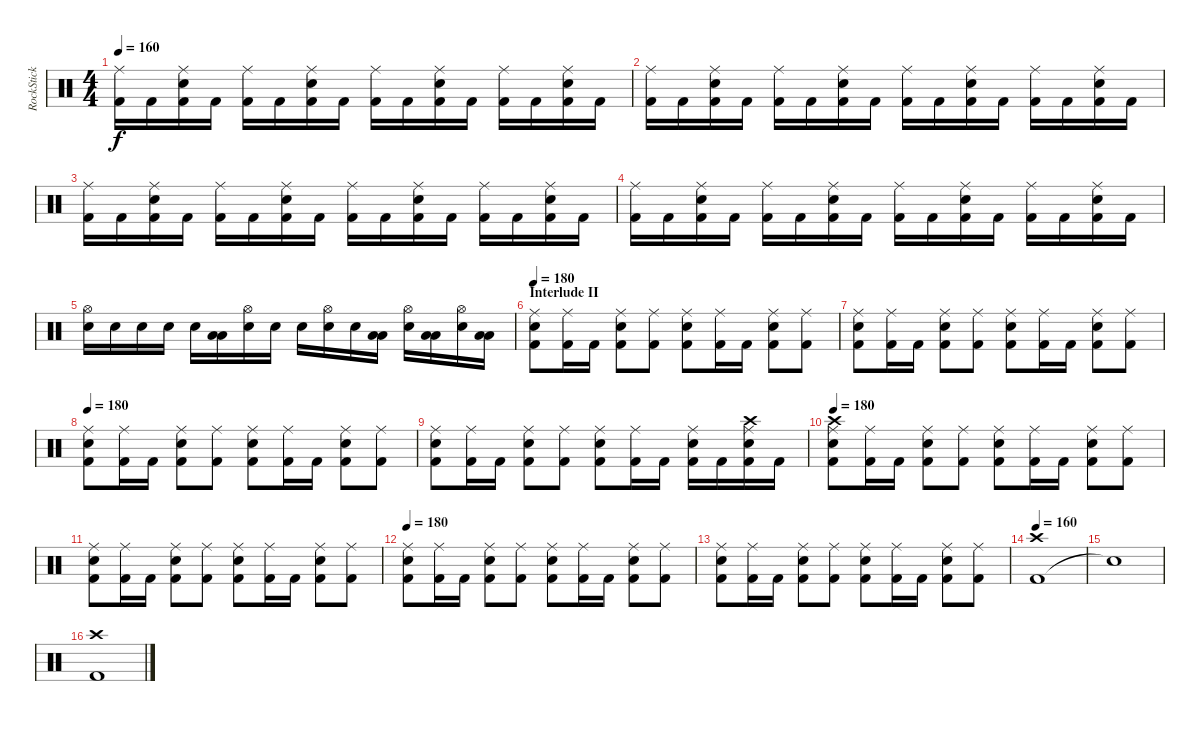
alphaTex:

\track ("RockStick" "RockStick") {instrument percussion}
\staff {score}
\articulation defaults
\ts (4 4)
\tempo 160
\clef neutral
\ks c
("Kick (hit) 2" "Ride (middle)").16{dy f} "Kick (hit) 2".16 ("Electric Snare (hit)" "Kick (hit) 2" "Ride (middle)").16 "Kick (hit) 2".16 ("Kick (hit) 2" "Ride (middle)").16 "Kick (hit) 2".16 ("Electric Snare (hit)" "Kick (hit) 2" "Ride (middle)").16 "Kick (hit) 2".16 ("Kick (hit) 2" "Ride (middle)").16 "Kick (hit) 2".16 ("Electric Snare (hit)" "Kick (hit) 2" "Ride (middle)").16 "Kick (hit) 2".16 ("Kick (hit) 2" "Ride (middle)").16 "Kick (hit) 2".16 ("Electric Snare (hit)" "Kick (hit) 2" "Ride (middle)").16 "Kick (hit) 2".16 |
("Kick (hit) 2" "Ride (middle)").16 "Kick (hit) 2".16 ("Electric Snare (hit)" "Kick (hit) 2" "Ride (middle)").16 "Kick (hit) 2".16 ("Kick (hit) 2" "Ride (middle)").16 "Kick (hit) 2".16 ("Electric Snare (hit)" "Kick (hit) 2" "Ride (middle)").16 "Kick (hit) 2".16 ("Kick (hit) 2" "Ride (middle)").16 "Kick (hit) 2".16 ("Electric Snare (hit)" "Kick (hit) 2" "Ride (middle)").16 "Kick (hit) 2".16 ("Kick (hit) 2" "Ride (middle)").16 "Kick (hit) 2".16 ("Electric Snare (hit)" "Kick (hit) 2" "Ride (middle)").16 "Kick (hit) 2".16 |
("Kick (hit) 2" "Ride (middle)").16 "Kick (hit) 2".16 ("Electric Snare (hit)" "Kick (hit) 2" "Ride (middle)").16 "Kick (hit) 2".16 ("Kick (hit) 2" "Ride (middle)").16 "Kick (hit) 2".16 ("Electric Snare (hit)" "Kick (hit) 2" "Ride (middle)").16 "Kick (hit) 2".16 ("Kick (hit) 2" "Ride (middle)").16 "Kick (hit) 2".16 ("Electric Snare (hit)" "Kick (hit) 2" "Ride (middle)").16 "Kick (hit) 2".16 ("Kick (hit) 2" "Ride (middle)").16 "Kick (hit) 2".16 ("Electric Snare (hit)" "Kick (hit) 2" "Ride (middle)").16 "Kick (hit) 2".16 |
("Kick (hit) 2" "Ride (middle)").16 "Kick (hit) 2".16 ("Electric Snare (hit)" "Kick (hit) 2" "Ride (middle)").16 "Kick (hit) 2".16 ("Kick (hit) 2" "Ride (middle)").16 "Kick (hit) 2".16 ("Electric Snare (hit)" "Kick (hit) 2" "Ride (middle)").16 "Kick (hit) 2".16 ("Kick (hit) 2" "Ride (middle)").16 "Kick (hit) 2".16 ("Electric Snare (hit)" "Kick (hit) 2" "Ride (middle)").16 "Kick (hit) 2".16 ("Kick (hit) 2" "Ride (middle)").16 "Kick (hit) 2".16 ("Electric Snare (hit)" "Kick (hit) 2" "Ride (middle)").16 "Kick (hit) 2".16 |
("Electric Snare (hit)" "Hi-Hat (open)").16 "Electric Snare (hit)".16 "Electric Snare (hit)".16 "Electric Snare (hit)".16 "Electric Snare (hit)".16 ("Low Tom (hit)" "Low Tom (hit)").16 ("Electric Snare (hit)" "Hi-Hat (open)").16 "Electric Snare (hit)".16 "Electric Snare (hit)".16 ("Electric Snare (hit)" "Hi-Hat (open)").16 "Electric Snare (hit)".16 ("Low Tom (hit)" "Low Tom (hit)").16 ("Electric Snare (hit)" "Hi-Hat (open)").16 ("Low Tom (hit)" "Low Tom (hit)").16 ("Electric Snare (hit)" "Hi-Hat (open)").16 ("Low Tom (hit)" "Low Tom (hit)").16 |
\section ("" "Interlude II")
\tempo 180
("Kick (hit) 2" "Electric Snare (hit)" "Ride (middle)").8 ("Kick (hit) 2" "Ride (middle)").16 "Kick (hit) 2".16 ("Kick (hit) 2" "Electric Snare (hit)" "Ride (middle)").8 ("Kick (hit) 2" "Ride (middle)").8 ("Kick (hit) 2" "Electric Snare (hit)" "Ride (middle)").8 ("Kick (hit) 2" "Ride (middle)").16 "Kick (hit) 2".16 ("Kick (hit) 2" "Electric Snare (hit)" "Ride (middle)").8 ("Kick (hit) 2" "Ride (middle)").8 |
("Kick (hit) 2" "Electric Snare (hit)" "Ride (middle)").8 ("Kick (hit) 2" "Ride (middle)").16 "Kick (hit) 2".16 ("Kick (hit) 2" "Electric Snare (hit)" "Ride (middle)").8 ("Kick (hit) 2" "Ride (middle)").8 ("Kick (hit) 2" "Electric Snare (hit)" "Ride (middle)").8 ("Kick (hit) 2" "Ride (middle)").16 "Kick (hit) 2".16 ("Kick (hit) 2" "Electric Snare (hit)" "Ride (middle)").8 ("Kick (hit) 2" "Ride (middle)").8 |
\tempo 180
("Kick (hit) 2" "Electric Snare (hit)" "Ride (middle)").8 ("Kick (hit) 2" "Ride (middle)").16 "Kick (hit) 2".16 ("Kick (hit) 2" "Electric Snare (hit)" "Ride (middle)").8 ("Kick (hit) 2" "Ride (middle)").8 ("Kick (hit) 2" "Electric Snare (hit)" "Ride (middle)").8 ("Kick (hit) 2" "Ride (middle)").16 "Kick (hit) 2".16 ("Kick (hit) 2" "Electric Snare (hit)" "Ride (middle)").8 ("Kick (hit) 2" "Ride (middle)").8 |
("Kick (hit) 2" "Electric Snare (hit)" "Ride (middle)").8 ("Kick (hit) 2" "Ride (middle)").16 "Kick (hit) 2".16 ("Kick (hit) 2" "Electric Snare (hit)" "Ride (middle)").8 ("Kick (hit) 2" "Ride (middle)").8 ("Kick (hit) 2" "Electric Snare (hit)" "Ride (middle)").8 ("Kick (hit) 2" "Ride (middle)").16 "Kick (hit) 2".16 ("Kick (hit) 2" "Electric Snare (hit)" "Ride (middle)").16 "Kick (hit) 2".16 ("Kick (hit) 2" "Electric Snare (hit)" "Ride (middle)" "Crash high (hit)").16 "Kick (hit) 2".16 |
\tempo 180
("Kick (hit) 2" "Electric Snare (hit)" "Ride (middle)" "Crash high (hit)").8 ("Kick (hit) 2" "Ride (middle)").16 "Kick (hit) 2".16 ("Kick (hit) 2" "Electric Snare (hit)" "Ride (middle)").8 ("Kick (hit) 2" "Ride (middle)").8 ("Kick (hit) 2" "Electric Snare (hit)" "Ride (middle)").8 ("Kick (hit) 2" "Ride (middle)").16 "Kick (hit) 2".16 ("Kick (hit) 2" "Electric Snare (hit)" "Ride (middle)").8 ("Kick (hit) 2" "Ride (middle)").8 |
("Kick (hit) 2" "Electric Snare (hit)" "Ride (middle)").8 ("Kick (hit) 2" "Ride (middle)").16 "Kick (hit) 2".16 ("Kick (hit) 2" "Electric Snare (hit)" "Ride (middle)").8 ("Kick (hit) 2" "Ride (middle)").8 ("Kick (hit) 2" "Electric Snare (hit)" "Ride (middle)").8 ("Kick (hit) 2" "Ride (middle)").16 "Kick (hit) 2".16 ("Kick (hit) 2" "Electric Snare (hit)" "Ride (middle)").8 ("Kick (hit) 2" "Ride (middle)").8 |
\tempo 180
("Kick (hit) 2" "Electric Snare (hit)" "Ride (middle)").8 ("Kick (hit) 2" "Ride (middle)").16 "Kick (hit) 2".16 ("Kick (hit) 2" "Electric Snare (hit)" "Ride (middle)").8 ("Kick (hit) 2" "Ride (middle)").8 ("Kick (hit) 2" "Electric Snare (hit)" "Ride (middle)").8 ("Kick (hit) 2" "Ride (middle)").16 "Kick (hit) 2".16 ("Kick (hit) 2" "Electric Snare (hit)" "Ride (middle)").8 ("Kick (hit) 2" "Ride (middle)").8 |
("Kick (hit) 2" "Electric Snare (hit)" "Ride (middle)").8 ("Kick (hit) 2" "Ride (middle)").16 "Kick (hit) 2".16 ("Kick (hit) 2" "Electric Snare (hit)" "Ride (middle)").8 ("Kick (hit) 2" "Ride (middle)").8 ("Kick (hit) 2" "Electric Snare (hit)" "Ride (middle)").8 ("Kick (hit) 2" "Ride (middle)").16 "Kick (hit) 2".16 ("Kick (hit) 2" "Electric Snare (hit)" "Ride (middle)").8 ("Kick (hit) 2" "Ride (middle)").8 |
\tempo 160
("Kick (hit) 2" "Crash high (hit)").1 |
"Snare (hit)"{t}.1 |
("Kick (hit) 2" "Crash high (hit)").1
